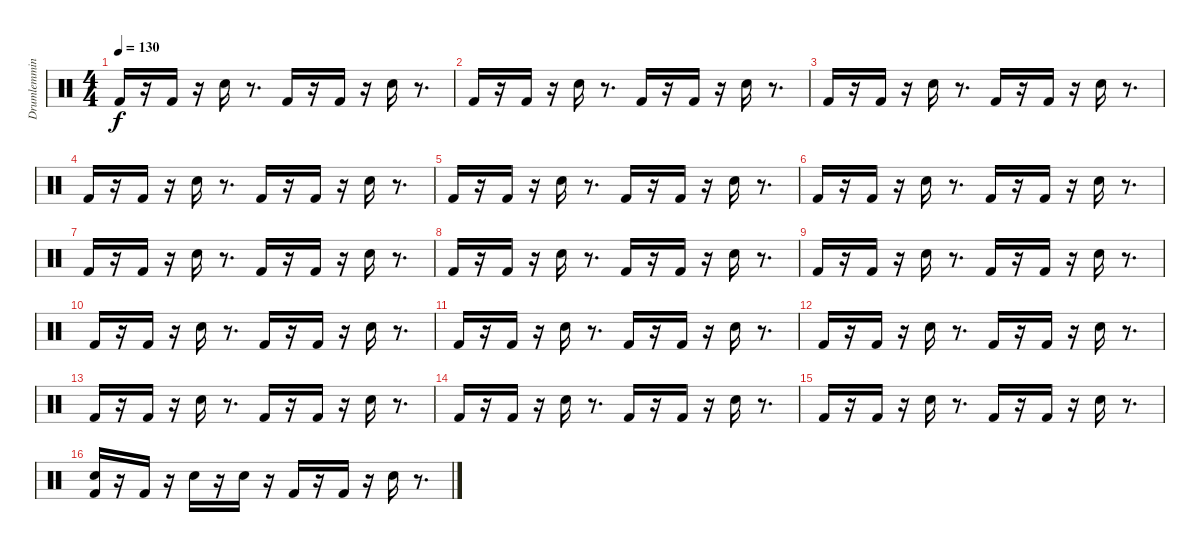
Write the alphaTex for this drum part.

\track ("Drumlemming" "Drumlemmin") {instrument percussion}
\staff {score}
\articulation defaults
\ts (4 4)
\tempo 130
\clef neutral
\ks c "Kick (hit) 2".16{dy f}
r.16 "Kick (hit) 2".16 r.16 "Snare (hit) 2".16 r.8{d} "Kick (hit) 2".16 r.16 "Kick (hit) 2".16 r.16 "Snare (hit) 2".16 r.8{d} |
"Kick (hit) 2".16 r.16 "Kick (hit) 2".16 r.16 "Snare (hit) 2".16 r.8{d} "Kick (hit) 2".16 r.16 "Kick (hit) 2".16 r.16 "Snare (hit) 2".16 r.8{d} |
"Kick (hit) 2".16 r.16 "Kick (hit) 2".16 r.16 "Snare (hit) 2".16 r.8{d} "Kick (hit) 2".16 r.16 "Kick (hit) 2".16 r.16 "Snare (hit) 2".16 r.8{d} |
"Kick (hit) 2".16 r.16 "Kick (hit) 2".16 r.16 "Snare (hit) 2".16 r.8{d} "Kick (hit) 2".16 r.16 "Kick (hit) 2".16 r.16 "Snare (hit) 2".16 r.8{d} |
"Kick (hit) 2".16 r.16 "Kick (hit) 2".16 r.16 "Snare (hit) 2".16 r.8{d} "Kick (hit) 2".16 r.16 "Kick (hit) 2".16 r.16 "Snare (hit) 2".16 r.8{d} |
"Kick (hit) 2".16 r.16 "Kick (hit) 2".16 r.16 "Snare (hit) 2".16 r.8{d} "Kick (hit) 2".16 r.16 "Kick (hit) 2".16 r.16 "Snare (hit) 2".16 r.8{d} |
"Kick (hit) 2".16 r.16 "Kick (hit) 2".16 r.16 "Snare (hit) 2".16 r.8{d} "Kick (hit) 2".16 r.16 "Kick (hit) 2".16 r.16 "Snare (hit) 2".16 r.8{d} |
"Kick (hit) 2".16 r.16 "Kick (hit) 2".16 r.16 "Snare (hit) 2".16 r.8{d} "Kick (hit) 2".16 r.16 "Kick (hit) 2".16 r.16 "Snare (hit) 2".16 r.8{d} |
"Kick (hit) 2".16 r.16 "Kick (hit) 2".16 r.16 "Snare (hit) 2".16 r.8{d} "Kick (hit) 2".16 r.16 "Kick (hit) 2".16 r.16 "Snare (hit) 2".16 r.8{d} |
"Kick (hit) 2".16 r.16 "Kick (hit) 2".16 r.16 "Snare (hit) 2".16 r.8{d} "Kick (hit) 2".16 r.16 "Kick (hit) 2".16 r.16 "Snare (hit) 2".16 r.8{d} |
"Kick (hit) 2".16 r.16 "Kick (hit) 2".16 r.16 "Snare (hit) 2".16 r.8{d} "Kick (hit) 2".16 r.16 "Kick (hit) 2".16 r.16 "Snare (hit) 2".16 r.8{d} |
"Kick (hit) 2".16 r.16 "Kick (hit) 2".16 r.16 "Snare (hit) 2".16 r.8{d} "Kick (hit) 2".16 r.16 "Kick (hit) 2".16 r.16 "Snare (hit) 2".16 r.8{d} |
"Kick (hit) 2".16 r.16 "Kick (hit) 2".16 r.16 "Snare (hit) 2".16 r.8{d} "Kick (hit) 2".16 r.16 "Kick (hit) 2".16 r.16 "Snare (hit) 2".16 r.8{d} |
"Kick (hit) 2".16 r.16 "Kick (hit) 2".16 r.16 "Snare (hit) 2".16 r.8{d} "Kick (hit) 2".16 r.16 "Kick (hit) 2".16 r.16 "Snare (hit) 2".16 r.8{d} |
"Kick (hit) 2".16 r.16 "Kick (hit) 2".16 r.16 "Snare (hit) 2".16 r.8{d} "Kick (hit) 2".16 r.16 "Kick (hit) 2".16 r.16 "Snare (hit) 2".16 r.8{d} |
("Hand Clap (hit)" "Kick (hit) 2").16 r.16 "Kick (hit) 2".16 r.16 "Snare (hit) 2".16 r.16 "Hand Clap (hit)".16 r.16 "Kick (hit) 2".16 r.16 "Kick (hit) 2".16 r.16 "Snare (hit) 2".16 r.8{d}
